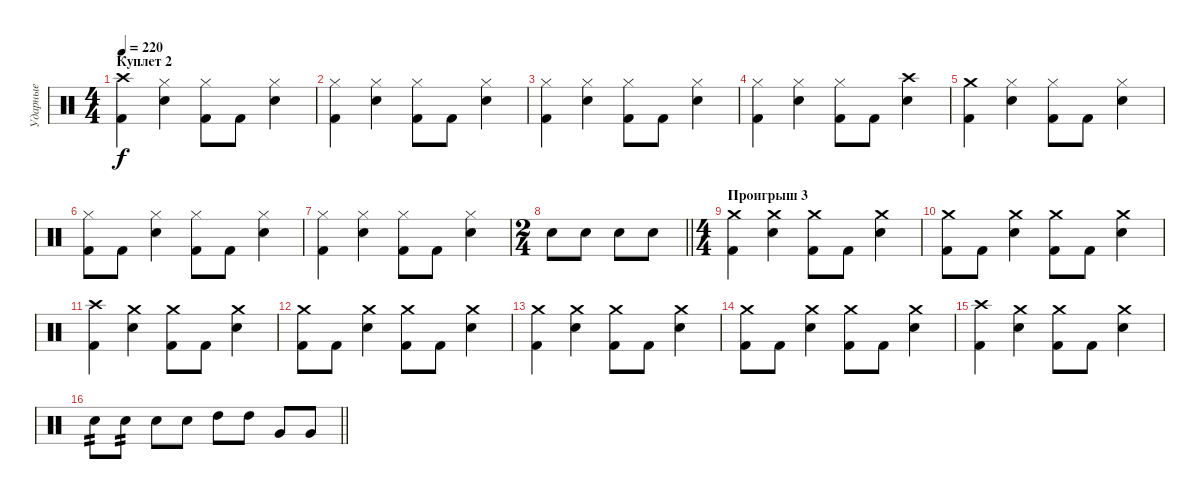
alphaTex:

\track ("Ударные" "Ударные") {instrument percussion}
\staff {score}
\articulation defaults
\ts (4 4)
\section ("" "Куплет 2")
\tempo 220
\clef neutral
\ks c
("Crash high (hit)" "Kick (hit) 2").4{dy f} ("Hi-Hat (closed)" "Snare (hit) 2").4 ("Hi-Hat (closed)" "Kick (hit) 2").8 "Kick (hit) 2".8 ("Hi-Hat (closed)" "Snare (hit) 2").4 |
("Hi-Hat (closed)" "Kick (hit) 2").4 ("Hi-Hat (closed)" "Snare (hit) 2").4 ("Hi-Hat (closed)" "Kick (hit) 2").8 "Kick (hit) 2".8 ("Hi-Hat (closed)" "Snare (hit) 2").4 |
("Hi-Hat (closed)" "Kick (hit) 2").4 ("Hi-Hat (closed)" "Snare (hit) 2").4 ("Hi-Hat (closed)" "Kick (hit) 2").8 "Kick (hit) 2".8 ("Hi-Hat (closed)" "Snare (hit) 2").4 |
("Hi-Hat (closed)" "Kick (hit) 2").4 ("Hi-Hat (closed)" "Snare (hit) 2").4 ("Hi-Hat (closed)" "Kick (hit) 2").8 "Kick (hit) 2".8 ("Crash high (hit)" "Snare (hit) 2").4 |
("Crash medium (hit)" "Kick (hit) 2").4 ("Hi-Hat (closed)" "Snare (hit) 2").4 ("Hi-Hat (closed)" "Kick (hit) 2").8 "Kick (hit) 2".8 ("Hi-Hat (closed)" "Snare (hit) 2").4 |
("Hi-Hat (closed)" "Kick (hit) 2").8 "Kick (hit) 2".8 ("Hi-Hat (closed)" "Snare (hit) 2").4 ("Hi-Hat (closed)" "Kick (hit) 2").8 "Kick (hit) 2".8 ("Hi-Hat (closed)" "Snare (hit) 2").4 |
("Hi-Hat (closed)" "Kick (hit) 2").4 ("Hi-Hat (closed)" "Snare (hit) 2").4 ("Hi-Hat (closed)" "Kick (hit) 2").8 "Kick (hit) 2".8 ("Hi-Hat (closed)" "Snare (hit) 2").4 |
\ts (2 4)
\barLineRight lightlight "Snare (hit) 2".8 "Snare (hit) 2".8 "Snare (hit) 2".8 "Snare (hit) 2".8
|
\ts (4 4)
\section ("" "Проигрыш 3")
("Crash medium (hit)" "Kick (hit) 2").4 ("Crash medium (hit)" "Snare (hit) 2").4 ("Crash medium (hit)" "Kick (hit) 2").8 "Kick (hit) 2".8 ("Crash medium (hit)" "Snare (hit) 2").4 |
("Crash medium (hit)" "Kick (hit) 2").8 "Kick (hit) 2".8 ("Crash medium (hit)" "Snare (hit) 2").4 ("Crash medium (hit)" "Kick (hit) 2").8 "Kick (hit) 2".8 ("Crash medium (hit)" "Snare (hit) 2").4 |
("Crash high (hit)" "Kick (hit) 2").4 ("Crash medium (hit)" "Snare (hit) 2").4 ("Crash medium (hit)" "Kick (hit) 2").8 "Kick (hit) 2".8 ("Crash medium (hit)" "Snare (hit) 2").4 |
("Crash medium (hit)" "Kick (hit) 2").8 "Kick (hit) 2".8 ("Crash medium (hit)" "Snare (hit) 2").4 ("Crash medium (hit)" "Kick (hit) 2").8 "Kick (hit) 2".8 ("Crash medium (hit)" "Snare (hit) 2").4 |
("Crash medium (hit)" "Kick (hit) 2").4 ("Crash medium (hit)" "Snare (hit) 2").4 ("Crash medium (hit)" "Kick (hit) 2").8 "Kick (hit) 2".8 ("Crash medium (hit)" "Snare (hit) 2").4 |
("Crash medium (hit)" "Kick (hit) 2").8 "Kick (hit) 2".8 ("Crash medium (hit)" "Snare (hit) 2").4 ("Crash medium (hit)" "Kick (hit) 2").8 "Kick (hit) 2".8 ("Crash medium (hit)" "Snare (hit) 2").4 |
("Crash high (hit)" "Kick (hit) 2").4 ("Crash medium (hit)" "Snare (hit) 2").4 ("Crash medium (hit)" "Kick (hit) 2").8 "Kick (hit) 2".8 ("Crash medium (hit)" "Snare (hit) 2").4 |
\barLineRight lightlight "Snare (hit) 2".8{tp 2} "Snare (hit) 2".8{tp 2} "Snare (hit) 2".8 "Snare (hit) 2".8 "High Tom (hit)".8 "High Tom (hit)".8 "Very Low Tom (hit)".8 "Very Low Tom (hit)".8
